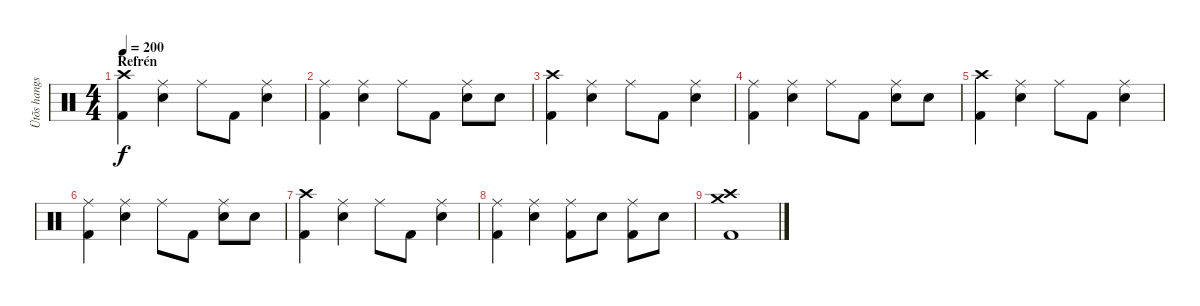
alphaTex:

\track ("Ütõs hangszer" "Ütõs hangs") {instrument percussion}
\staff {score}
\articulation defaults
\ts (4 4)
\section ("" "Refrén")
\tempo 200
\clef neutral
\ks c
("Crash high (hit)" "Kick (hit) 2").4{dy f} ("Ride (middle)" "Snare (hit) 2").4 "Ride (middle)".8 "Kick (hit) 2".8 ("Ride (middle)" "Snare (hit) 2").4 |
("Ride (middle)" "Kick (hit) 2").4 ("Ride (middle)" "Snare (hit) 2").4 "Ride (middle)".8 "Kick (hit) 2".8 ("Ride (middle)" "Snare (hit) 2").8 "Snare (hit) 2".8 |
("Crash high (hit)" "Kick (hit) 2").4 ("Ride (middle)" "Snare (hit) 2").4 "Ride (middle)".8 "Kick (hit) 2".8 ("Ride (middle)" "Snare (hit) 2").4 |
("Ride (middle)" "Kick (hit) 2").4 ("Ride (middle)" "Snare (hit) 2").4 "Ride (middle)".8 "Kick (hit) 2".8 ("Ride (middle)" "Snare (hit) 2").8 "Snare (hit) 2".8 |
("Crash high (hit)" "Kick (hit) 2").4 ("Ride (middle)" "Snare (hit) 2").4 "Ride (middle)".8 "Kick (hit) 2".8 ("Ride (middle)" "Snare (hit) 2").4 |
("Ride (middle)" "Kick (hit) 2").4 ("Ride (middle)" "Snare (hit) 2").4 "Ride (middle)".8 "Kick (hit) 2".8 ("Ride (middle)" "Snare (hit) 2").8 "Snare (hit) 2".8 |
("Crash high (hit)" "Kick (hit) 2").4 ("Ride (middle)" "Snare (hit) 2").4 "Ride (middle)".8 "Kick (hit) 2".8 ("Ride (middle)" "Snare (hit) 2").4 |
("Ride (middle)" "Kick (hit) 2").4 ("Ride (middle)" "Snare (hit) 2").4 ("Ride (middle)" "Kick (hit) 2").8 "Snare (hit) 2".8 ("Ride (middle)" "Kick (hit) 2").8 "Snare (hit) 2".8 |
("Crash medium (hit)" "Crash high (hit)" "Kick (hit) 2").1
